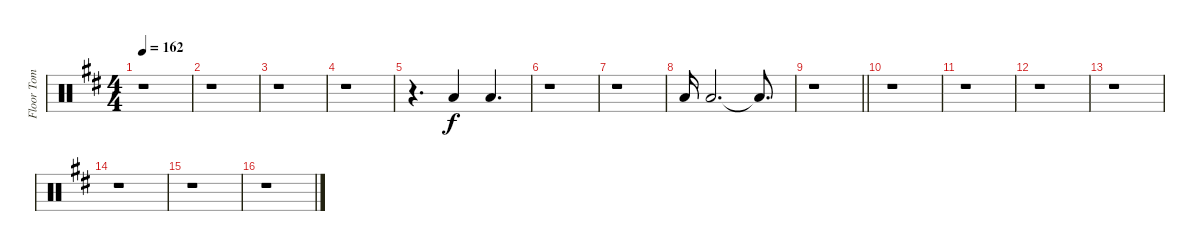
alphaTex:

\track ("Floor Tom" "Floor Tom") {instrument percussion}
\staff {score}
\articulation defaults
\ts (4 4)
\tempo 162
\clef neutral
\ks bminor
r.1{dy f} |
r.1 |
r.1 |
r.1 |
r.4{d} "Low Tom (hit)".4 "Low Tom (hit)".4{d} |
r.1 |
r.1 |
"Low Tom (hit)".16 "Low Tom (hit)".2{d} "Low Tom (hit)"{t}.8{d} |
\barLineRight lightlight
r.1 |
r.1 |
r.1 |
r.1 |
r.1 |
r.1 |
r.1 |
r.1
